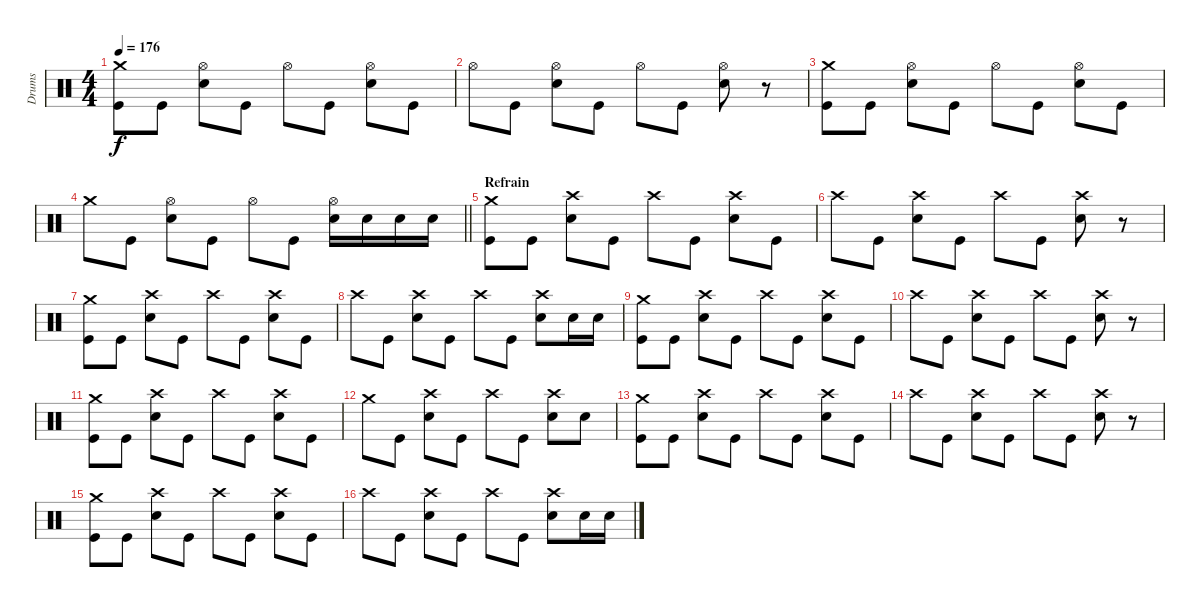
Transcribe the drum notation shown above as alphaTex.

\track ("Drums" "Drums") {instrument percussion}
\staff {score}
\articulation defaults
\ts (4 4)
\tempo 176
\clef neutral
\ks c
("Crash medium (hit)" "Kick (hit)").8{dy f} "Kick (hit)".8 ("Hi-Hat (open)" "Electric Snare (hit)").8 "Kick (hit)".8 "Hi-Hat (open)".8 "Kick (hit)".8 ("Hi-Hat (open)" "Electric Snare (hit)").8 "Kick (hit)".8 |
"Hi-Hat (open)".8 "Kick (hit)".8 ("Hi-Hat (open)" "Electric Snare (hit)").8 "Kick (hit)".8 "Hi-Hat (open)".8 "Kick (hit)".8 ("Hi-Hat (open)" "Electric Snare (hit)").8 r.8 |
("Crash medium (hit)" "Kick (hit)").8 "Kick (hit)".8 ("Hi-Hat (open)" "Electric Snare (hit)").8 "Kick (hit)".8 "Hi-Hat (open)".8 "Kick (hit)".8 ("Hi-Hat (open)" "Electric Snare (hit)").8 "Kick (hit)".8 |
\barLineRight lightlight "Crash medium (hit)".8 "Kick (hit)".8
("Hi-Hat (open)" "Electric Snare (hit)").8 "Kick (hit)".8 "Hi-Hat (open)".8 "Kick (hit)".8 ("Hi-Hat (open)" "Electric Snare (hit)").16 "Electric Snare (hit)".16 "Electric Snare (hit)".16 "Electric Snare (hit)".16 |
\section ("" "Refrain")
("Crash medium (hit)" "Kick (hit)").8 "Kick (hit)".8 ("Crash high (hit)" "Electric Snare (hit)").8 "Kick (hit)".8 "Crash high (hit)".8 "Kick (hit)".8 ("Crash high (hit)" "Electric Snare (hit)").8 "Kick (hit)".8 |
"Crash high (hit)".8 "Kick (hit)".8 ("Crash high (hit)" "Electric Snare (hit)").8 "Kick (hit)".8 "Crash high (hit)".8 "Kick (hit)".8 ("Crash high (hit)" "Electric Snare (hit)").8 r.8 |
("Crash medium (hit)" "Kick (hit)").8 "Kick (hit)".8 ("Crash high (hit)" "Electric Snare (hit)").8 "Kick (hit)".8 "Crash high (hit)".8 "Kick (hit)".8 ("Crash high (hit)" "Electric Snare (hit)").8 "Kick (hit)".8 |
"Crash high (hit)".8 "Kick (hit)".8 ("Crash high (hit)" "Electric Snare (hit)").8 "Kick (hit)".8 "Crash high (hit)".8 "Kick (hit)".8 ("Crash high (hit)" "Electric Snare (hit)").8 "Electric Snare (hit)".16 "Electric Snare (hit)".16 |
("Crash medium (hit)" "Kick (hit)").8 "Kick (hit)".8 ("Crash high (hit)" "Electric Snare (hit)").8 "Kick (hit)".8 "Crash high (hit)".8 "Kick (hit)".8 ("Crash high (hit)" "Electric Snare (hit)").8 "Kick (hit)".8 |
"Crash high (hit)".8 "Kick (hit)".8 ("Crash high (hit)" "Electric Snare (hit)").8 "Kick (hit)".8 "Crash high (hit)".8 "Kick (hit)".8 ("Crash high (hit)" "Electric Snare (hit)").8 r.8 |
("Crash medium (hit)" "Kick (hit)").8 "Kick (hit)".8 ("Crash high (hit)" "Electric Snare (hit)").8 "Kick (hit)".8 "Crash high (hit)".8 "Kick (hit)".8 ("Crash high (hit)" "Electric Snare (hit)").8 "Kick (hit)".8 |
"Crash medium (hit)".8 "Kick (hit)".8 ("Crash high (hit)" "Electric Snare (hit)").8 "Kick (hit)".8 "Crash high (hit)".8 "Kick (hit)".8 ("Crash high (hit)" "Electric Snare (hit)").8 "Electric Snare (hit)".8 |
("Crash medium (hit)" "Kick (hit)").8 "Kick (hit)".8 ("Crash high (hit)" "Electric Snare (hit)").8 "Kick (hit)".8 "Crash high (hit)".8 "Kick (hit)".8 ("Crash high (hit)" "Electric Snare (hit)").8 "Kick (hit)".8 |
"Crash high (hit)".8 "Kick (hit)".8 ("Crash high (hit)" "Electric Snare (hit)").8 "Kick (hit)".8 "Crash high (hit)".8 "Kick (hit)".8 ("Crash high (hit)" "Electric Snare (hit)").8 r.8 |
("Crash medium (hit)" "Kick (hit)").8 "Kick (hit)".8 ("Crash high (hit)" "Electric Snare (hit)").8 "Kick (hit)".8 "Crash high (hit)".8 "Kick (hit)".8 ("Crash high (hit)" "Electric Snare (hit)").8 "Kick (hit)".8 |
"Crash high (hit)".8 "Kick (hit)".8 ("Crash high (hit)" "Electric Snare (hit)").8 "Kick (hit)".8 "Crash high (hit)".8 "Kick (hit)".8 ("Crash high (hit)" "Electric Snare (hit)").8 "Electric Snare (hit)".16 "Electric Snare (hit)".16
